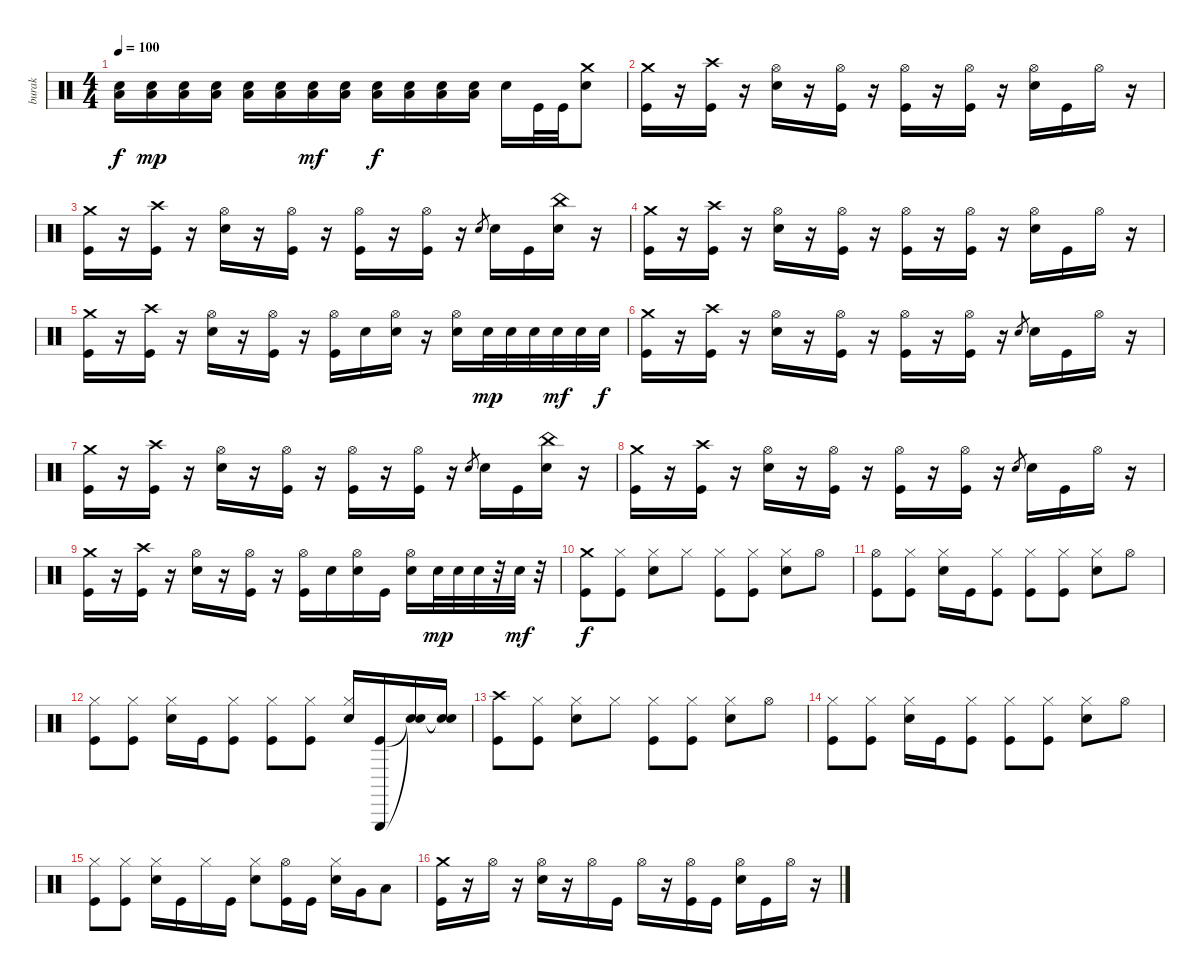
\track ("burak" "burak") {instrument percussion}
\staff {score}
\articulation defaults
\ts (4 4)
\tempo 100
\clef neutral
\ks c
("Electric Snare (hit)" "Low Floor Tom (hit)").16{dy f} ("Electric Snare (hit)" "Low Floor Tom (hit)").16{dy mp} ("Electric Snare (hit)" "Low Floor Tom (hit)").16 ("Electric Snare (hit)" "Low Floor Tom (hit)").16 ("Electric Snare (hit)" "Low Floor Tom (hit)").16 ("Electric Snare (hit)" "Low Floor Tom (hit)").16 ("Electric Snare (hit)" "Low Floor Tom (hit)").16{dy mf} ("Electric Snare (hit)" "Low Floor Tom (hit)").16 ("Electric Snare (hit)" "Low Floor Tom (hit)").16{dy f} ("Electric Snare (hit)" "Low Floor Tom (hit)").16 ("Electric Snare (hit)" "Low Floor Tom (hit)").16 ("Electric Snare (hit)" "Low Floor Tom (hit)").16 "Electric Snare (hit)".16 "Kick (hit)".32 "Kick (hit)".32 ("Crash medium (hit)" "Electric Snare (hit)").8 |
("Crash medium (hit)" "Kick (hit)").16 r.16 ("Crash high (hit)" "Kick (hit)").16 r.16 ("Hi-Hat (open)" "Electric Snare (hit)").16 r.16 ("Hi-Hat (open)" "Kick (hit)").16 r.16 ("Hi-Hat (open)" "Kick (hit)").16 r.16 ("Hi-Hat (open)" "Kick (hit)").16 r.16 ("Hi-Hat (open)" "Electric Snare (hit)").16 "Kick (hit)".16 "Hi-Hat (open)".16 r.16 |
("Crash medium (hit)" "Kick (hit)").16 r.16 ("Crash high (hit)" "Kick (hit)").16 r.16 ("Hi-Hat (open)" "Electric Snare (hit)").16 r.16 ("Hi-Hat (open)" "Kick (hit)").16 r.16 ("Hi-Hat (open)" "Kick (hit)").16 r.16 ("Hi-Hat (open)" "Kick (hit)").16 r.16 "Electric Snare (hit)".8{gr} "Electric Snare (hit)".16 "Kick (hit)".16 ("China (hit)" "Electric Snare (hit)").16 r.16 |
("Crash medium (hit)" "Kick (hit)").16 r.16 ("Crash high (hit)" "Kick (hit)").16 r.16 ("Hi-Hat (open)" "Electric Snare (hit)").16 r.16 ("Hi-Hat (open)" "Kick (hit)").16 r.16 ("Hi-Hat (open)" "Kick (hit)").16 r.16 ("Hi-Hat (open)" "Kick (hit)").16 r.16 ("Hi-Hat (open)" "Electric Snare (hit)").16 "Kick (hit)".16 "Hi-Hat (open)".16 r.16 |
("Crash medium (hit)" "Kick (hit)").16 r.16 ("Crash high (hit)" "Kick (hit)").16 r.16 ("Hi-Hat (open)" "Electric Snare (hit)").16 r.16 ("Hi-Hat (open)" "Kick (hit)").16 r.16 ("Hi-Hat (open)" "Kick (hit)").16 "Electric Snare (hit)".16 ("Hi-Hat (open)" "Electric Snare (hit)").16 r.16 ("Hi-Hat (open)" "Electric Snare (hit)").16 "Electric Snare (hit)".32{dy mp} "Electric Snare (hit)".32 "Electric Snare (hit)".32 "Electric Snare (hit)".32{dy mf} "Electric Snare (hit)".32 "Electric Snare (hit)".32{dy f} |
("Crash medium (hit)" "Kick (hit)").16 r.16 ("Crash high (hit)" "Kick (hit)").16 r.16 ("Hi-Hat (open)" "Electric Snare (hit)").16 r.16 ("Hi-Hat (open)" "Kick (hit)").16 r.16 ("Hi-Hat (open)" "Kick (hit)").16 r.16 ("Hi-Hat (open)" "Kick (hit)").16 r.16 "Electric Snare (hit)".8{gr} "Electric Snare (hit)".16 "Kick (hit)".16 "Hi-Hat (open)".16 r.16 |
("Crash medium (hit)" "Kick (hit)").16 r.16 ("Crash high (hit)" "Kick (hit)").16 r.16 ("Hi-Hat (open)" "Electric Snare (hit)").16 r.16 ("Hi-Hat (open)" "Kick (hit)").16 r.16 ("Hi-Hat (open)" "Kick (hit)").16 r.16 ("Hi-Hat (open)" "Kick (hit)").16 r.16 "Electric Snare (hit)".8{gr} "Electric Snare (hit)".16 "Kick (hit)".16 ("China (hit)" "Electric Snare (hit)").16 r.16 |
("Crash medium (hit)" "Kick (hit)").16 r.16 ("Crash high (hit)" "Kick (hit)").16 r.16 ("Hi-Hat (open)" "Electric Snare (hit)").16 r.16 ("Hi-Hat (open)" "Kick (hit)").16 r.16 ("Hi-Hat (open)" "Kick (hit)").16 r.16 ("Hi-Hat (open)" "Kick (hit)").16 r.16 "Electric Snare (hit)".8{gr} "Electric Snare (hit)".16 "Kick (hit)".16 "Hi-Hat (open)".16 r.16 |
("Crash medium (hit)" "Kick (hit)").16 r.16 ("Crash high (hit)" "Kick (hit)").16 r.16 ("Hi-Hat (open)" "Electric Snare (hit)").16 r.16 ("Hi-Hat (open)" "Kick (hit)").16 r.16 ("Hi-Hat (open)" "Kick (hit)").16 "Electric Snare (hit)".16 ("Hi-Hat (open)" "Electric Snare (hit)").16 "Kick (hit)".16 ("Hi-Hat (open)" "Electric Snare (hit)").16 "Electric Snare (hit)".32{dy mp} "Electric Snare (hit)".32 "Electric Snare (hit)".32 r.32 "Electric Snare (hit)".32{dy mf} r.32 |
("Crash medium (hit)" "Kick (hit)").8{dy f} ("Hi-Hat (closed)" "Kick (hit)").8 ("Hi-Hat (closed)" "Electric Snare (hit)").8 "Hi-Hat (closed)".8 ("Hi-Hat (closed)" "Kick (hit)").8 ("Hi-Hat (closed)" "Kick (hit)").8 ("Hi-Hat (closed)" "Electric Snare (hit)").8 "Hi-Hat (open)".8 |
("Hi-Hat (open)" "Kick (hit)").8 ("Hi-Hat (closed)" "Kick (hit)").8 ("Hi-Hat (closed)" "Electric Snare (hit)").16 "Kick (hit)".16 ("Hi-Hat (closed)" "Kick (hit)").8 ("Hi-Hat (closed)" "Kick (hit)").8 ("Hi-Hat (closed)" "Kick (hit)").8 ("Hi-Hat (closed)" "Electric Snare (hit)").8 "Hi-Hat (open)".8 |
("Hi-Hat (closed)" "Kick (hit)").8 ("Hi-Hat (closed)" "Kick (hit)").8 ("Hi-Hat (closed)" "Electric Snare (hit)").16 "Kick (hit)".16 ("Hi-Hat (closed)" "Kick (hit)").8 ("Hi-Hat (closed)" "Kick (hit)").8 ("Hi-Hat (closed)" "Kick (hit)").8 ("Hi-Hat (closed)" "Electric Snare (hit)").16 ("Triangle (hit)" "Kick (hit)").16 ("Snare (hit)"{t} "Snare (hit)"{t}).16 ("Snare (hit)"{t} "Snare (hit)"{t}).16 |
("Crash high (hit)" "Kick (hit)").8 ("Hi-Hat (closed)" "Kick (hit)").8 ("Hi-Hat (closed)" "Electric Snare (hit)").8 "Hi-Hat (closed)".8 ("Hi-Hat (closed)" "Kick (hit)").8 ("Hi-Hat (closed)" "Kick (hit)").8 ("Hi-Hat (closed)" "Electric Snare (hit)").8 "Hi-Hat (open)".8 |
("Hi-Hat (closed)" "Kick (hit)").8 ("Hi-Hat (closed)" "Kick (hit)").8 ("Hi-Hat (closed)" "Electric Snare (hit)").16 "Kick (hit)".16 ("Hi-Hat (closed)" "Kick (hit)").8 ("Hi-Hat (closed)" "Kick (hit)").8 ("Hi-Hat (closed)" "Kick (hit)").8 ("Hi-Hat (closed)" "Electric Snare (hit)").8 "Hi-Hat (open)".8 |
("Hi-Hat (closed)" "Kick (hit)").8 ("Hi-Hat (closed)" "Kick (hit)").8 ("Hi-Hat (closed)" "Electric Snare (hit)").16 "Kick (hit)".16 "Hi-Hat (closed)".16 "Kick (hit)".16 ("Hi-Hat (closed)" "Electric Snare (hit)").8 ("Hi-Hat (open)" "Kick (hit)").16 "Kick (hit)".16 ("Hi-Hat (closed)" "Electric Snare (hit)").16 "Very Low Tom (hit)".16 "Low Floor Tom (hit)".8 |
("Crash medium (hit)" "Kick (hit)").16 r.16 "Hi-Hat (open)".16 r.16 ("Hi-Hat (open)" "Electric Snare (hit)").16 r.16 "Hi-Hat (open)".16 "Kick (hit)".16 "Hi-Hat (open)".16 r.16 ("Hi-Hat (open)" "Kick (hit)").16 "Kick (hit)".16 ("Hi-Hat (open)" "Electric Snare (hit)").16 "Kick (hit)".16 "Hi-Hat (open)".16 r.16
